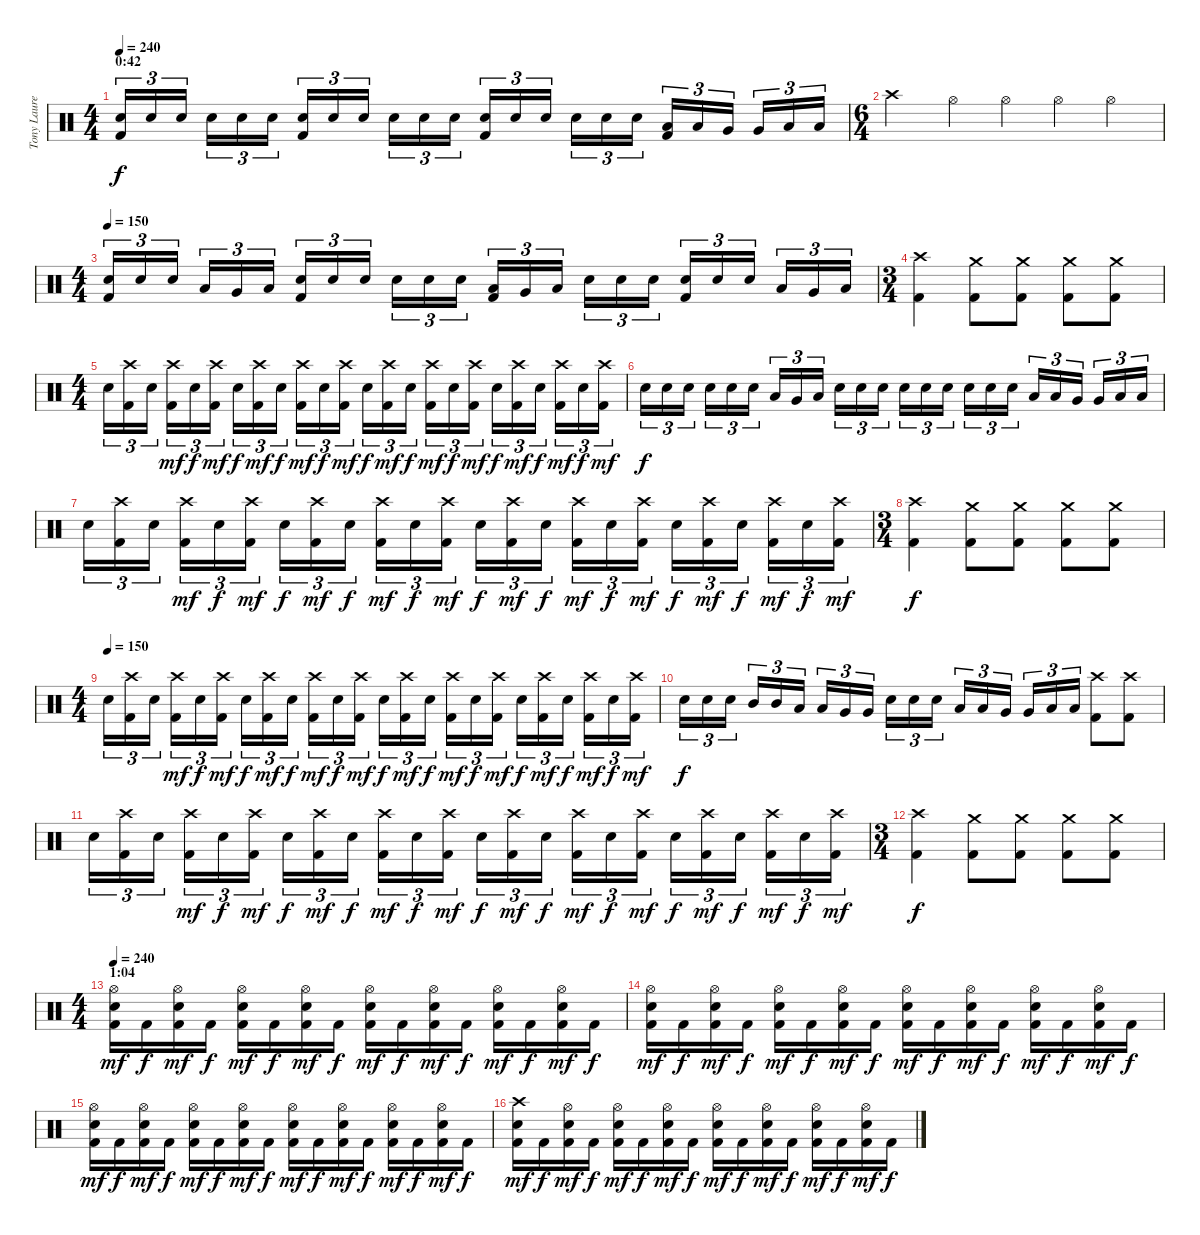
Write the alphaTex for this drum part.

\track ("Tony Laureano" "Tony Laure") {instrument percussion}
\staff {score}
\articulation defaults
\ts (4 4)
\section ("" "0:42")
\tempo 240
\tempo 150
\tempo 240
\clef neutral
\ks c
("Electric Snare (hit)" "Kick (hit) 2").16{tu (3 2) dy f} "Electric Snare (hit)".16{tu (3 2)} "Electric Snare (hit)".16{tu (3 2)} "Electric Snare (hit)".16{tu (3 2)} "Electric Snare (hit)".16{tu (3 2)} "Electric Snare (hit)".16{tu (3 2)} ("Electric Snare (hit)" "Kick (hit) 2").16{tu (3 2)} "Electric Snare (hit)".16{tu (3 2)} "Electric Snare (hit)".16{tu (3 2)} "Electric Snare (hit)".16{tu (3 2)} "Electric Snare (hit)".16{tu (3 2)} "Electric Snare (hit)".16{tu (3 2)} ("Electric Snare (hit)" "Kick (hit) 2").16{tu (3 2)} "Electric Snare (hit)".16{tu (3 2)} "Electric Snare (hit)".16{tu (3 2)} "Electric Snare (hit)".16{tu (3 2)} "Electric Snare (hit)".16{tu (3 2)} "Electric Snare (hit)".16{tu (3 2)} ("Low Tom (hit)" "Kick (hit) 2").16{tu (3 2)} "Low Tom (hit)".16{tu (3 2)} "Very Low Tom (hit)".16{tu (3 2)} "Very Low Tom (hit)".16{tu (3 2)} "Low Floor Tom (hit)".16{tu (3 2)} "Low Floor Tom (hit)".16{tu (3 2)} |
\ts (6 4)
"Crash high (hit)".2 "Hi-Hat (open)".4 "Hi-Hat (open)".4 "Hi-Hat (open)".4 "Hi-Hat (open)".4 |
\ts (4 4)
\tempo 150
("Electric Snare (hit)" "Kick (hit) 2").16{tu (3 2)} "Electric Snare (hit)".16{tu (3 2)} "Electric Snare (hit)".16{tu (3 2)} "Low Tom (hit)".16{tu (3 2)} "Very Low Tom (hit)".16{tu (3 2)} "Low Floor Tom (hit)".16{tu (3 2)} ("Electric Snare (hit)" "Kick (hit) 2").16{tu (3 2)} "Electric Snare (hit)".16{tu (3 2)} "Electric Snare (hit)".16{tu (3 2)} "Electric Snare (hit)".16{tu (3 2)} "Electric Snare (hit)".16{tu (3 2)} "Electric Snare (hit)".16{tu (3 2)} ("Low Tom (hit)" "Kick (hit) 2").16{tu (3 2)} "Very Low Tom (hit)".16{tu (3 2)} "Low Floor Tom (hit)".16{tu (3 2)} "Electric Snare (hit)".16{tu (3 2)} "Electric Snare (hit)".16{tu (3 2)} "Electric Snare (hit)".16{tu (3 2)} ("Electric Snare (hit)" "Kick (hit) 2").16{tu (3 2)} "Electric Snare (hit)".16{tu (3 2)} "Electric Snare (hit)".16{tu (3 2)} "Low Tom (hit)".16{tu (3 2)} "Very Low Tom (hit)".16{tu (3 2)} "Low Floor Tom (hit)".16{tu (3 2)} |
\ts (3 4)
("Crash high (hit)" "Kick (hit) 2").4 ("Crash medium (hit)" "Kick (hit) 2").8 ("Crash medium (hit)" "Kick (hit) 2").8 ("Crash medium (hit)" "Kick (hit) 2").8 ("Crash medium (hit)" "Kick (hit) 2").8 |
\ts (4 4)
"Electric Snare (hit)".16{tu (3 2)} ("Crash high (hit)" "Kick (hit) 2").16{tu (3 2)} "Electric Snare (hit)".16{tu (3 2)} ("Crash high (hit)" "Kick (hit) 2").16{tu (3 2) dy mf} "Electric Snare (hit)".16{tu (3 2) dy f} ("Crash high (hit)" "Kick (hit) 2").16{tu (3 2) dy mf} "Electric Snare (hit)".16{tu (3 2) dy f} ("Crash high (hit)" "Kick (hit) 2").16{tu (3 2) dy mf} "Electric Snare (hit)".16{tu (3 2) dy f} ("Crash high (hit)" "Kick (hit) 2").16{tu (3 2) dy mf} "Electric Snare (hit)".16{tu (3 2) dy f} ("Crash high (hit)" "Kick (hit) 2").16{tu (3 2) dy mf} "Electric Snare (hit)".16{tu (3 2) dy f} ("Crash high (hit)" "Kick (hit) 2").16{tu (3 2) dy mf} "Electric Snare (hit)".16{tu (3 2) dy f} ("Crash high (hit)" "Kick (hit) 2").16{tu (3 2) dy mf} "Electric Snare (hit)".16{tu (3 2) dy f} ("Crash high (hit)" "Kick (hit) 2").16{tu (3 2) dy mf} "Electric Snare (hit)".16{tu (3 2) dy f} ("Crash high (hit)" "Kick (hit) 2").16{tu (3 2) dy mf} "Electric Snare (hit)".16{tu (3 2) dy f} ("Crash high (hit)" "Kick (hit) 2").16{tu (3 2) dy mf} "Electric Snare (hit)".16{tu (3 2) dy f} ("Crash high (hit)" "Kick (hit) 2").16{tu (3 2) dy mf} |
"Electric Snare (hit)".16{tu (3 2) dy f} "Electric Snare (hit)".16{tu (3 2)} "Electric Snare (hit)".16{tu (3 2)} "Electric Snare (hit)".16{tu (3 2)} "Electric Snare (hit)".16{tu (3 2)} "Electric Snare (hit)".16{tu (3 2)} "Low Tom (hit)".16{tu (3 2)} "Very Low Tom (hit)".16{tu (3 2)} "Low Floor Tom (hit)".16{tu (3 2)} "Electric Snare (hit)".16{tu (3 2)} "Electric Snare (hit)".16{tu (3 2)} "Electric Snare (hit)".16{tu (3 2)} "Electric Snare (hit)".16{tu (3 2)} "Electric Snare (hit)".16{tu (3 2)} "Electric Snare (hit)".16{tu (3 2)} "Electric Snare (hit)".16{tu (3 2)} "Electric Snare (hit)".16{tu (3 2)} "Electric Snare (hit)".16{tu (3 2)} "Low Tom (hit)".16{tu (3 2)} "Low Tom (hit)".16{tu (3 2)} "Very Low Tom (hit)".16{tu (3 2)} "Very Low Tom (hit)".16{tu (3 2)} "Low Floor Tom (hit)".16{tu (3 2)} "Low Floor Tom (hit)".16{tu (3 2)} |
"Electric Snare (hit)".16{tu (3 2)} ("Crash high (hit)" "Kick (hit) 2").16{tu (3 2)} "Electric Snare (hit)".16{tu (3 2)} ("Crash high (hit)" "Kick (hit) 2").16{tu (3 2) dy mf} "Electric Snare (hit)".16{tu (3 2) dy f} ("Crash high (hit)" "Kick (hit) 2").16{tu (3 2) dy mf} "Electric Snare (hit)".16{tu (3 2) dy f} ("Crash high (hit)" "Kick (hit) 2").16{tu (3 2) dy mf} "Electric Snare (hit)".16{tu (3 2) dy f} ("Crash high (hit)" "Kick (hit) 2").16{tu (3 2) dy mf} "Electric Snare (hit)".16{tu (3 2) dy f} ("Crash high (hit)" "Kick (hit) 2").16{tu (3 2) dy mf} "Electric Snare (hit)".16{tu (3 2) dy f} ("Crash high (hit)" "Kick (hit) 2").16{tu (3 2) dy mf} "Electric Snare (hit)".16{tu (3 2) dy f} ("Crash high (hit)" "Kick (hit) 2").16{tu (3 2) dy mf} "Electric Snare (hit)".16{tu (3 2) dy f} ("Crash high (hit)" "Kick (hit) 2").16{tu (3 2) dy mf} "Electric Snare (hit)".16{tu (3 2) dy f} ("Crash high (hit)" "Kick (hit) 2").16{tu (3 2) dy mf} "Electric Snare (hit)".16{tu (3 2) dy f} ("Crash high (hit)" "Kick (hit) 2").16{tu (3 2) dy mf} "Electric Snare (hit)".16{tu (3 2) dy f} ("Crash high (hit)" "Kick (hit) 2").16{tu (3 2) dy mf} |
\ts (3 4)
("Crash high (hit)" "Kick (hit) 2").4{dy f} ("Crash medium (hit)" "Kick (hit) 2").8 ("Crash medium (hit)" "Kick (hit) 2").8 ("Crash medium (hit)" "Kick (hit) 2").8 ("Crash medium (hit)" "Kick (hit) 2").8 |
\ts (4 4)
\tempo (150)
"Electric Snare (hit)".16{tu (3 2)} ("Crash high (hit)" "Kick (hit) 2").16{tu (3 2)} "Electric Snare (hit)".16{tu (3 2)} ("Crash high (hit)" "Kick (hit) 2").16{tu (3 2) dy mf} "Electric Snare (hit)".16{tu (3 2) dy f} ("Crash high (hit)" "Kick (hit) 2").16{tu (3 2) dy mf} "Electric Snare (hit)".16{tu (3 2) dy f} ("Crash high (hit)" "Kick (hit) 2").16{tu (3 2) dy mf} "Electric Snare (hit)".16{tu (3 2) dy f} ("Crash high (hit)" "Kick (hit) 2").16{tu (3 2) dy mf} "Electric Snare (hit)".16{tu (3 2) dy f} ("Crash high (hit)" "Kick (hit) 2").16{tu (3 2) dy mf} "Electric Snare (hit)".16{tu (3 2) dy f} ("Crash high (hit)" "Kick (hit) 2").16{tu (3 2) dy mf} "Electric Snare (hit)".16{tu (3 2) dy f} ("Crash high (hit)" "Kick (hit) 2").16{tu (3 2) dy mf} "Electric Snare (hit)".16{tu (3 2) dy f} ("Crash high (hit)" "Kick (hit) 2").16{tu (3 2) dy mf} "Electric Snare (hit)".16{tu (3 2) dy f} ("Crash high (hit)" "Kick (hit) 2").16{tu (3 2) dy mf} "Electric Snare (hit)".16{tu (3 2) dy f} ("Crash high (hit)" "Kick (hit) 2").16{tu (3 2) dy mf} "Electric Snare (hit)".16{tu (3 2) dy f} ("Crash high (hit)" "Kick (hit) 2").16{tu (3 2) dy mf} |
"Electric Snare (hit)".16{tu (3 2) dy f} "Electric Snare (hit)".16{tu (3 2)} "Electric Snare (hit)".16{tu (3 2)} "Mid Tom (hit)".16{tu (3 2)} "Mid Tom (hit)".16{tu (3 2)} "Low Tom (hit)".16{tu (3 2)} "Low Tom (hit)".16{tu (3 2)} "Very Low Tom (hit)".16{tu (3 2)} "Very Low Tom (hit)".16{tu (3 2)} "Electric Snare (hit)".16{tu (3 2)} "Electric Snare (hit)".16{tu (3 2)} "Electric Snare (hit)".16{tu (3 2)} "Low Tom (hit)".16{tu (3 2)} "Low Tom (hit)".16{tu (3 2)} "Very Low Tom (hit)".16{tu (3 2)} "Very Low Tom (hit)".16{tu (3 2)} "Low Floor Tom (hit)".16{tu (3 2)} "Low Floor Tom (hit)".16{tu (3 2)} ("Crash high (hit)" "Kick (hit) 2").8 ("Crash high (hit)" "Kick (hit) 2").8 |
"Electric Snare (hit)".16{tu (3 2)} ("Crash high (hit)" "Kick (hit) 2").16{tu (3 2)} "Electric Snare (hit)".16{tu (3 2)} ("Crash high (hit)" "Kick (hit) 2").16{tu (3 2) dy mf} "Electric Snare (hit)".16{tu (3 2) dy f} ("Crash high (hit)" "Kick (hit) 2").16{tu (3 2) dy mf} "Electric Snare (hit)".16{tu (3 2) dy f} ("Crash high (hit)" "Kick (hit) 2").16{tu (3 2) dy mf} "Electric Snare (hit)".16{tu (3 2) dy f} ("Crash high (hit)" "Kick (hit) 2").16{tu (3 2) dy mf} "Electric Snare (hit)".16{tu (3 2) dy f} ("Crash high (hit)" "Kick (hit) 2").16{tu (3 2) dy mf} "Electric Snare (hit)".16{tu (3 2) dy f} ("Crash high (hit)" "Kick (hit) 2").16{tu (3 2) dy mf} "Electric Snare (hit)".16{tu (3 2) dy f} ("Crash high (hit)" "Kick (hit) 2").16{tu (3 2) dy mf} "Electric Snare (hit)".16{tu (3 2) dy f} ("Crash high (hit)" "Kick (hit) 2").16{tu (3 2) dy mf} "Electric Snare (hit)".16{tu (3 2) dy f} ("Crash high (hit)" "Kick (hit) 2").16{tu (3 2) dy mf} "Electric Snare (hit)".16{tu (3 2) dy f} ("Crash high (hit)" "Kick (hit) 2").16{tu (3 2) dy mf} "Electric Snare (hit)".16{tu (3 2) dy f} ("Crash high (hit)" "Kick (hit) 2").16{tu (3 2) dy mf} |
\ts (3 4)
("Crash high (hit)" "Kick (hit) 2").4{dy f} ("Crash medium (hit)" "Kick (hit) 2").8 ("Crash medium (hit)" "Kick (hit) 2").8 ("Crash medium (hit)" "Kick (hit) 2").8 ("Crash medium (hit)" "Kick (hit) 2").8 |
\ts (4 4)
\section ("" "1:04")
\tempo 240
("Hi-Hat (open)" "Electric Snare (hit)" "Kick (hit) 2").16{dy mf} "Kick (hit) 2".16{dy f} ("Hi-Hat (open)" "Electric Snare (hit)" "Kick (hit) 2").16{dy mf} "Kick (hit) 2".16{dy f} ("Hi-Hat (open)" "Electric Snare (hit)" "Kick (hit) 2").16{dy mf} "Kick (hit) 2".16{dy f} ("Hi-Hat (open)" "Electric Snare (hit)" "Kick (hit) 2").16{dy mf} "Kick (hit) 2".16{dy f} ("Hi-Hat (open)" "Electric Snare (hit)" "Kick (hit) 2").16{dy mf} "Kick (hit) 2".16{dy f} ("Hi-Hat (open)" "Electric Snare (hit)" "Kick (hit) 2").16{dy mf} "Kick (hit) 2".16{dy f} ("Hi-Hat (open)" "Electric Snare (hit)" "Kick (hit) 2").16{dy mf} "Kick (hit) 2".16{dy f} ("Hi-Hat (open)" "Electric Snare (hit)" "Kick (hit) 2").16{dy mf} "Kick (hit) 2".16{dy f} |
("Hi-Hat (open)" "Electric Snare (hit)" "Kick (hit) 2").16{dy mf} "Kick (hit) 2".16{dy f} ("Hi-Hat (open)" "Electric Snare (hit)" "Kick (hit) 2").16{dy mf} "Kick (hit) 2".16{dy f} ("Hi-Hat (open)" "Electric Snare (hit)" "Kick (hit) 2").16{dy mf} "Kick (hit) 2".16{dy f} ("Hi-Hat (open)" "Electric Snare (hit)" "Kick (hit) 2").16{dy mf} "Kick (hit) 2".16{dy f} ("Hi-Hat (open)" "Electric Snare (hit)" "Kick (hit) 2").16{dy mf} "Kick (hit) 2".16{dy f} ("Hi-Hat (open)" "Electric Snare (hit)" "Kick (hit) 2").16{dy mf} "Kick (hit) 2".16{dy f} ("Hi-Hat (open)" "Electric Snare (hit)" "Kick (hit) 2").16{dy mf} "Kick (hit) 2".16{dy f} ("Hi-Hat (open)" "Electric Snare (hit)" "Kick (hit) 2").16{dy mf} "Kick (hit) 2".16{dy f} |
("Hi-Hat (open)" "Electric Snare (hit)" "Kick (hit) 2").16{dy mf} "Kick (hit) 2".16{dy f} ("Hi-Hat (open)" "Electric Snare (hit)" "Kick (hit) 2").16{dy mf} "Kick (hit) 2".16{dy f} ("Hi-Hat (open)" "Electric Snare (hit)" "Kick (hit) 2").16{dy mf} "Kick (hit) 2".16{dy f} ("Hi-Hat (open)" "Electric Snare (hit)" "Kick (hit) 2").16{dy mf} "Kick (hit) 2".16{dy f} ("Hi-Hat (open)" "Electric Snare (hit)" "Kick (hit) 2").16{dy mf} "Kick (hit) 2".16{dy f} ("Hi-Hat (open)" "Electric Snare (hit)" "Kick (hit) 2").16{dy mf} "Kick (hit) 2".16{dy f} ("Hi-Hat (open)" "Electric Snare (hit)" "Kick (hit) 2").16{dy mf} "Kick (hit) 2".16{dy f} ("Hi-Hat (open)" "Electric Snare (hit)" "Kick (hit) 2").16{dy mf} "Kick (hit) 2".16{dy f} |
("Crash high (hit)" "Electric Snare (hit)" "Kick (hit) 2").16{dy mf} "Kick (hit) 2".16{dy f} ("Hi-Hat (open)" "Electric Snare (hit)" "Kick (hit) 2").16{dy mf} "Kick (hit) 2".16{dy f} ("Hi-Hat (open)" "Electric Snare (hit)" "Kick (hit) 2").16{dy mf} "Kick (hit) 2".16{dy f} ("Hi-Hat (open)" "Electric Snare (hit)" "Kick (hit) 2").16{dy mf} "Kick (hit) 2".16{dy f} ("Hi-Hat (open)" "Electric Snare (hit)" "Kick (hit) 2").16{dy mf} "Kick (hit) 2".16{dy f} ("Hi-Hat (open)" "Electric Snare (hit)" "Kick (hit) 2").16{dy mf} "Kick (hit) 2".16{dy f} ("Hi-Hat (open)" "Electric Snare (hit)" "Kick (hit) 2").16{dy mf} "Kick (hit) 2".16{dy f} ("Hi-Hat (open)" "Electric Snare (hit)" "Kick (hit) 2").16{dy mf} "Kick (hit) 2".16{dy f}
